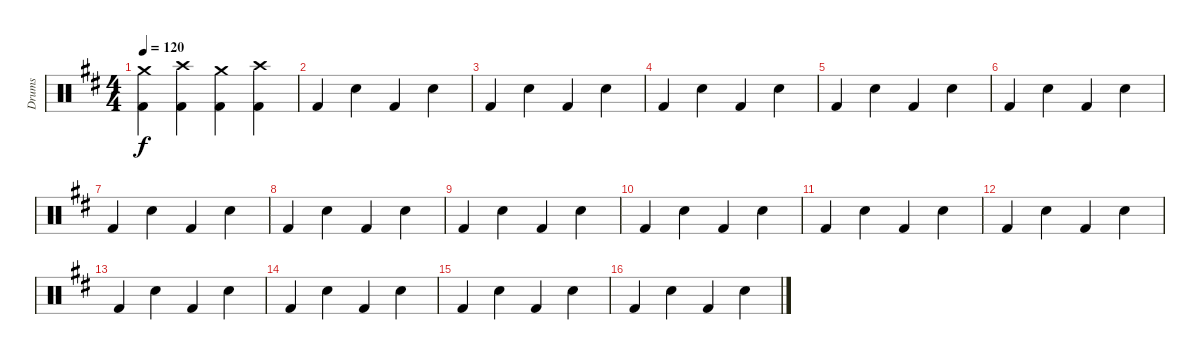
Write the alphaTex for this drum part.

\track ("Drums" "Drums") {instrument percussion}
\staff {score}
\articulation defaults
\ts (4 4)
\tempo 120
\clef neutral
\ks d
("Kick (hit) 2" "Crash medium (hit)").4{dy f} ("Kick (hit) 2" "Crash high (hit)").4 ("Kick (hit) 2" "Crash medium (hit)").4 ("Kick (hit) 2" "Crash high (hit)").4 |
"Kick (hit) 2".4 "Snare (hit) 2".4 "Kick (hit) 2".4 "Snare (hit) 2".4 |
"Kick (hit) 2".4 "Snare (hit) 2".4 "Kick (hit) 2".4 "Snare (hit) 2".4 |
"Kick (hit) 2".4 "Snare (hit) 2".4 "Kick (hit) 2".4 "Snare (hit) 2".4 |
"Kick (hit) 2".4 "Snare (hit) 2".4 "Kick (hit) 2".4 "Snare (hit) 2".4 |
"Kick (hit) 2".4 "Snare (hit) 2".4 "Kick (hit) 2".4 "Snare (hit) 2".4 |
"Kick (hit) 2".4 "Snare (hit) 2".4 "Kick (hit) 2".4 "Snare (hit) 2".4 |
"Kick (hit) 2".4 "Snare (hit) 2".4 "Kick (hit) 2".4 "Snare (hit) 2".4 |
"Kick (hit) 2".4 "Snare (hit) 2".4 "Kick (hit) 2".4 "Snare (hit) 2".4 |
"Kick (hit) 2".4 "Snare (hit) 2".4 "Kick (hit) 2".4 "Snare (hit) 2".4 |
"Kick (hit) 2".4 "Snare (hit) 2".4 "Kick (hit) 2".4 "Snare (hit) 2".4 |
"Kick (hit) 2".4 "Snare (hit) 2".4 "Kick (hit) 2".4 "Snare (hit) 2".4 |
"Kick (hit) 2".4 "Snare (hit) 2".4 "Kick (hit) 2".4 "Snare (hit) 2".4 |
"Kick (hit) 2".4 "Snare (hit) 2".4 "Kick (hit) 2".4 "Snare (hit) 2".4 |
"Kick (hit) 2".4 "Snare (hit) 2".4 "Kick (hit) 2".4 "Snare (hit) 2".4 |
"Kick (hit) 2".4 "Snare (hit) 2".4 "Kick (hit) 2".4 "Snare (hit) 2".4
